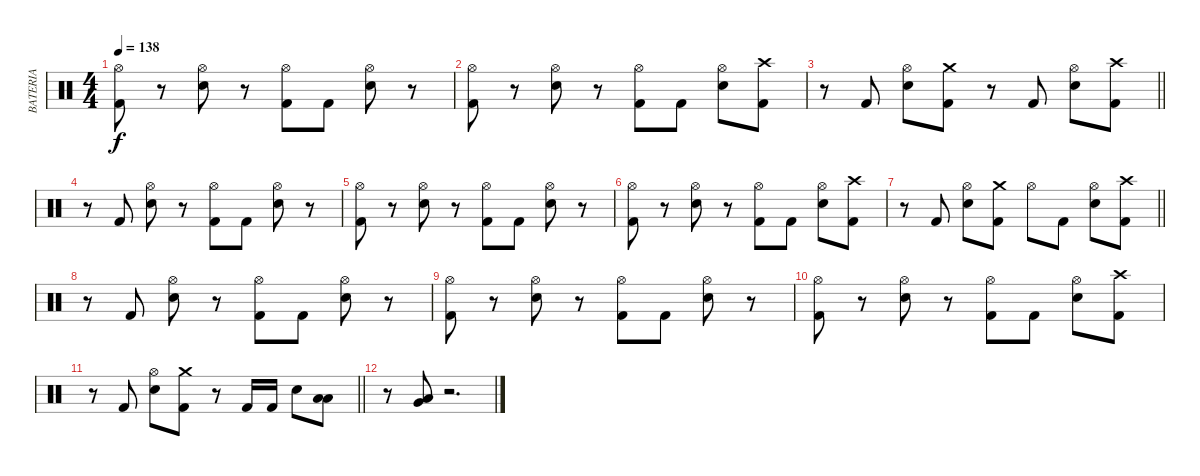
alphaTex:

\track ("BATERIA" "BATERIA") {instrument percussion}
\staff {score}
\articulation defaults
\ts (4 4)
\tempo 138
\clef neutral
\ks c
("Kick (hit) 2" "Hi-Hat (open)").8{dy f} r.8 ("Electric Snare (hit)" "Hi-Hat (open)").8 r.8 ("Kick (hit) 2" "Hi-Hat (open)").8 "Kick (hit) 2".8 ("Electric Snare (hit)" "Hi-Hat (open)").8 r.8 |
("Kick (hit) 2" "Hi-Hat (open)").8 r.8 ("Electric Snare (hit)" "Hi-Hat (open)").8 r.8 ("Kick (hit) 2" "Hi-Hat (open)").8 "Kick (hit) 2".8 ("Electric Snare (hit)" "Hi-Hat (open)").8 ("Kick (hit) 2" "Crash high (hit)").8 |
\barLineRight lightlight
r.8 "Kick (hit) 2".8 ("Electric Snare (hit)" "Hi-Hat (open)").8 ("Kick (hit) 2" "Crash medium (hit)").8 r.8 "Kick (hit) 2".8 ("Electric Snare (hit)" "Hi-Hat (open)").8 ("Kick (hit) 2" "Crash high (hit)").8 |
r.8 "Kick (hit) 2".8 ("Electric Snare (hit)" "Hi-Hat (open)").8 r.8 ("Kick (hit) 2" "Hi-Hat (open)").8 "Kick (hit) 2".8 ("Electric Snare (hit)" "Hi-Hat (open)").8 r.8 |
("Kick (hit) 2" "Hi-Hat (open)").8 r.8 ("Electric Snare (hit)" "Hi-Hat (open)").8 r.8 ("Kick (hit) 2" "Hi-Hat (open)").8 "Kick (hit) 2".8 ("Electric Snare (hit)" "Hi-Hat (open)").8 r.8 |
("Kick (hit) 2" "Hi-Hat (open)").8 r.8 ("Electric Snare (hit)" "Hi-Hat (open)").8 r.8 ("Kick (hit) 2" "Hi-Hat (open)").8 "Kick (hit) 2".8 ("Electric Snare (hit)" "Hi-Hat (open)").8 ("Kick (hit) 2" "Crash high (hit)").8 |
\barLineRight lightlight
r.8 "Kick (hit) 2".8 ("Electric Snare (hit)" "Hi-Hat (open)").8 ("Kick (hit) 2" "Crash medium (hit)").8 "Hi-Hat (open)".8 "Kick (hit) 2".8 ("Electric Snare (hit)" "Hi-Hat (open)").8 ("Kick (hit) 2" "Crash high (hit)").8 |
r.8 "Kick (hit) 2".8 ("Electric Snare (hit)" "Hi-Hat (open)").8 r.8 ("Kick (hit) 2" "Hi-Hat (open)").8 "Kick (hit) 2".8 ("Electric Snare (hit)" "Hi-Hat (open)").8 r.8 |
("Kick (hit) 2" "Hi-Hat (open)").8 r.8 ("Electric Snare (hit)" "Hi-Hat (open)").8 r.8 ("Kick (hit) 2" "Hi-Hat (open)").8 "Kick (hit) 2".8 ("Electric Snare (hit)" "Hi-Hat (open)").8 r.8 |
("Kick (hit) 2" "Hi-Hat (open)").8 r.8 ("Electric Snare (hit)" "Hi-Hat (open)").8 r.8 ("Kick (hit) 2" "Hi-Hat (open)").8 "Kick (hit) 2".8 ("Electric Snare (hit)" "Hi-Hat (open)").8 ("Kick (hit) 2" "Crash high (hit)").8 |
\barLineRight lightlight
r.8 "Kick (hit) 2".8 ("Electric Snare (hit)" "Hi-Hat (open)").8 ("Kick (hit) 2" "Crash medium (hit)").8 r.8 "Kick (hit) 2".16 "Kick (hit) 2".16 "Electric Snare (hit)".8 ("Low Floor Tom (hit)" "Low Tom (hit)").8 |
r.8 ("Low Tom (hit)" "Very Low Tom (hit)").8 r.2{d}
